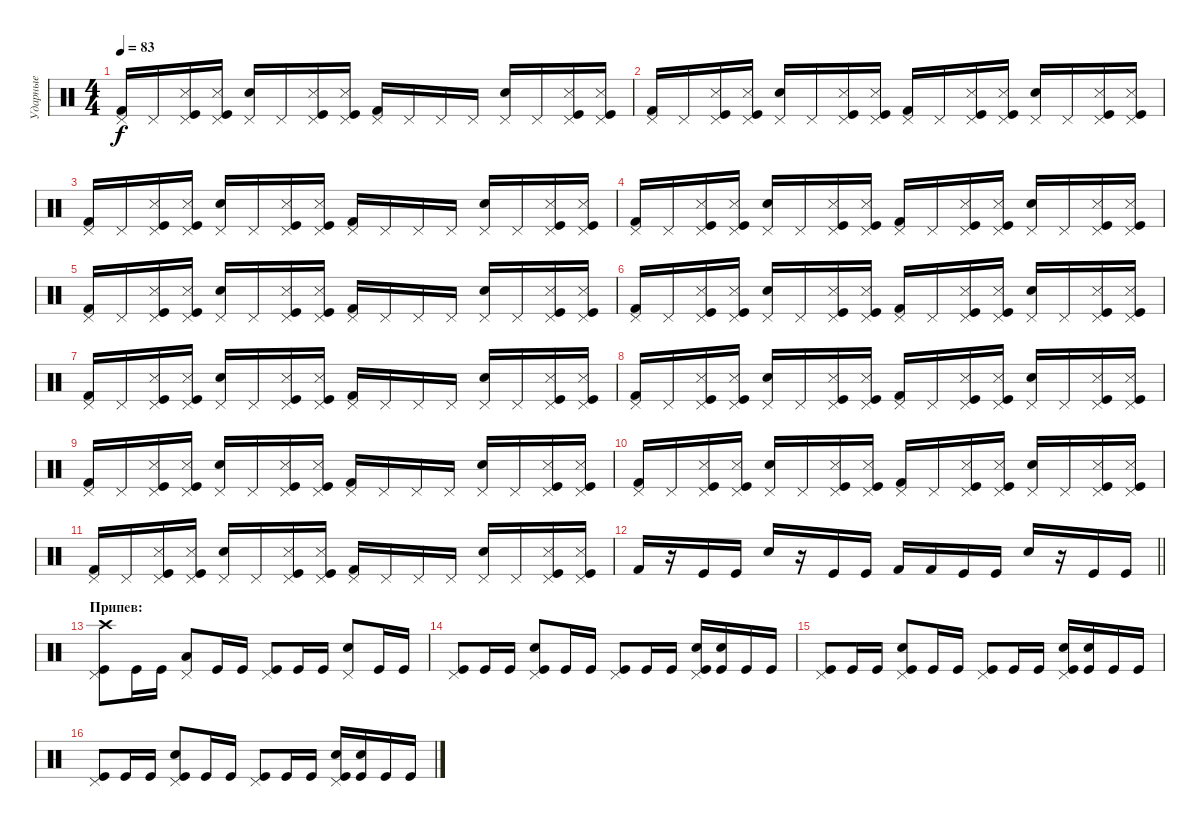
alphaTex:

\track ("Ударные" "Ударные") {instrument percussion}
\staff {score}
\articulation defaults
\ts (4 4)
\tempo 83
\clef neutral
\ks c
("Kick (hit) 2" "Pedal Hi-Hat (hit)").16{dy f} "Pedal Hi-Hat (hit)".16 ("Kick (hit)" "Snare (side stick) 3" "Pedal Hi-Hat (hit)").16 ("Kick (hit)" "Snare (side stick) 3" "Pedal Hi-Hat (hit)").16 ("Electric Snare (hit)" "Pedal Hi-Hat (hit)").16 "Pedal Hi-Hat (hit)".16 ("Kick (hit)" "Snare (side stick) 3" "Pedal Hi-Hat (hit)").16 ("Kick (hit)" "Snare (side stick) 3" "Pedal Hi-Hat (hit)").16 ("Kick (hit) 2" "Pedal Hi-Hat (hit)").16 "Pedal Hi-Hat (hit)".16 "Pedal Hi-Hat (hit)".16 "Pedal Hi-Hat (hit)".16 ("Electric Snare (hit)" "Pedal Hi-Hat (hit)").16 "Pedal Hi-Hat (hit)".16 ("Kick (hit)" "Snare (side stick) 3" "Pedal Hi-Hat (hit)").16 ("Kick (hit)" "Snare (side stick) 3" "Pedal Hi-Hat (hit)").16 |
("Kick (hit) 2" "Pedal Hi-Hat (hit)").16 "Pedal Hi-Hat (hit)".16 ("Kick (hit)" "Snare (side stick) 3" "Pedal Hi-Hat (hit)").16 ("Kick (hit)" "Snare (side stick) 3" "Pedal Hi-Hat (hit)").16 ("Electric Snare (hit)" "Pedal Hi-Hat (hit)").16 "Pedal Hi-Hat (hit)".16 ("Kick (hit)" "Snare (side stick) 3" "Pedal Hi-Hat (hit)").16 ("Kick (hit)" "Snare (side stick) 3" "Pedal Hi-Hat (hit)").16 ("Kick (hit) 2" "Pedal Hi-Hat (hit)").16 "Pedal Hi-Hat (hit)".16 ("Kick (hit)" "Snare (side stick) 3" "Pedal Hi-Hat (hit)").16 ("Kick (hit)" "Snare (side stick) 3" "Pedal Hi-Hat (hit)").16 ("Electric Snare (hit)" "Pedal Hi-Hat (hit)").16 "Pedal Hi-Hat (hit)".16 ("Kick (hit)" "Snare (side stick) 3" "Pedal Hi-Hat (hit)").16 ("Kick (hit)" "Snare (side stick) 3" "Pedal Hi-Hat (hit)").16 |
("Kick (hit) 2" "Pedal Hi-Hat (hit)").16 "Pedal Hi-Hat (hit)".16 ("Kick (hit)" "Snare (side stick) 3" "Pedal Hi-Hat (hit)").16 ("Kick (hit)" "Snare (side stick) 3" "Pedal Hi-Hat (hit)").16 ("Electric Snare (hit)" "Pedal Hi-Hat (hit)").16 "Pedal Hi-Hat (hit)".16 ("Kick (hit)" "Snare (side stick) 3" "Pedal Hi-Hat (hit)").16 ("Kick (hit)" "Snare (side stick) 3" "Pedal Hi-Hat (hit)").16 ("Kick (hit) 2" "Pedal Hi-Hat (hit)").16 "Pedal Hi-Hat (hit)".16 "Pedal Hi-Hat (hit)".16 "Pedal Hi-Hat (hit)".16 ("Electric Snare (hit)" "Pedal Hi-Hat (hit)").16 "Pedal Hi-Hat (hit)".16 ("Kick (hit)" "Snare (side stick) 3" "Pedal Hi-Hat (hit)").16 ("Kick (hit)" "Snare (side stick) 3" "Pedal Hi-Hat (hit)").16 |
("Kick (hit) 2" "Pedal Hi-Hat (hit)").16 "Pedal Hi-Hat (hit)".16 ("Kick (hit)" "Snare (side stick) 3" "Pedal Hi-Hat (hit)").16 ("Kick (hit)" "Snare (side stick) 3" "Pedal Hi-Hat (hit)").16 ("Electric Snare (hit)" "Pedal Hi-Hat (hit)").16 "Pedal Hi-Hat (hit)".16 ("Kick (hit)" "Snare (side stick) 3" "Pedal Hi-Hat (hit)").16 ("Kick (hit)" "Snare (side stick) 3" "Pedal Hi-Hat (hit)").16 ("Kick (hit) 2" "Pedal Hi-Hat (hit)").16 "Pedal Hi-Hat (hit)".16 ("Kick (hit)" "Snare (side stick) 3" "Pedal Hi-Hat (hit)").16 ("Kick (hit)" "Snare (side stick) 3" "Pedal Hi-Hat (hit)").16 ("Electric Snare (hit)" "Pedal Hi-Hat (hit)").16 "Pedal Hi-Hat (hit)".16 ("Kick (hit)" "Snare (side stick) 3" "Pedal Hi-Hat (hit)").16 ("Kick (hit)" "Snare (side stick) 3" "Pedal Hi-Hat (hit)").16 |
("Kick (hit) 2" "Pedal Hi-Hat (hit)").16 "Pedal Hi-Hat (hit)".16 ("Kick (hit)" "Snare (side stick) 3" "Pedal Hi-Hat (hit)").16 ("Kick (hit)" "Snare (side stick) 3" "Pedal Hi-Hat (hit)").16 ("Electric Snare (hit)" "Pedal Hi-Hat (hit)").16 "Pedal Hi-Hat (hit)".16 ("Kick (hit)" "Snare (side stick) 3" "Pedal Hi-Hat (hit)").16 ("Kick (hit)" "Snare (side stick) 3" "Pedal Hi-Hat (hit)").16 ("Kick (hit) 2" "Pedal Hi-Hat (hit)").16 "Pedal Hi-Hat (hit)".16 "Pedal Hi-Hat (hit)".16 "Pedal Hi-Hat (hit)".16 ("Electric Snare (hit)" "Pedal Hi-Hat (hit)").16 "Pedal Hi-Hat (hit)".16 ("Kick (hit)" "Snare (side stick) 3" "Pedal Hi-Hat (hit)").16 ("Kick (hit)" "Snare (side stick) 3" "Pedal Hi-Hat (hit)").16 |
("Kick (hit) 2" "Pedal Hi-Hat (hit)").16 "Pedal Hi-Hat (hit)".16 ("Kick (hit)" "Snare (side stick) 3" "Pedal Hi-Hat (hit)").16 ("Kick (hit)" "Snare (side stick) 3" "Pedal Hi-Hat (hit)").16 ("Electric Snare (hit)" "Pedal Hi-Hat (hit)").16 "Pedal Hi-Hat (hit)".16 ("Kick (hit)" "Snare (side stick) 3" "Pedal Hi-Hat (hit)").16 ("Kick (hit)" "Snare (side stick) 3" "Pedal Hi-Hat (hit)").16 ("Kick (hit) 2" "Pedal Hi-Hat (hit)").16 "Pedal Hi-Hat (hit)".16 ("Kick (hit)" "Snare (side stick) 3" "Pedal Hi-Hat (hit)").16 ("Kick (hit)" "Snare (side stick) 3" "Pedal Hi-Hat (hit)").16 ("Electric Snare (hit)" "Pedal Hi-Hat (hit)").16 "Pedal Hi-Hat (hit)".16 ("Kick (hit)" "Snare (side stick) 3" "Pedal Hi-Hat (hit)").16 ("Kick (hit)" "Snare (side stick) 3" "Pedal Hi-Hat (hit)").16 |
("Kick (hit) 2" "Pedal Hi-Hat (hit)").16 "Pedal Hi-Hat (hit)".16 ("Kick (hit)" "Snare (side stick) 3" "Pedal Hi-Hat (hit)").16 ("Kick (hit)" "Snare (side stick) 3" "Pedal Hi-Hat (hit)").16 ("Electric Snare (hit)" "Pedal Hi-Hat (hit)").16 "Pedal Hi-Hat (hit)".16 ("Kick (hit)" "Snare (side stick) 3" "Pedal Hi-Hat (hit)").16 ("Kick (hit)" "Snare (side stick) 3" "Pedal Hi-Hat (hit)").16 ("Kick (hit) 2" "Pedal Hi-Hat (hit)").16 "Pedal Hi-Hat (hit)".16 "Pedal Hi-Hat (hit)".16 "Pedal Hi-Hat (hit)".16 ("Electric Snare (hit)" "Pedal Hi-Hat (hit)").16 "Pedal Hi-Hat (hit)".16 ("Kick (hit)" "Snare (side stick) 3" "Pedal Hi-Hat (hit)").16 ("Kick (hit)" "Snare (side stick) 3" "Pedal Hi-Hat (hit)").16 |
("Kick (hit) 2" "Pedal Hi-Hat (hit)").16 "Pedal Hi-Hat (hit)".16 ("Kick (hit)" "Snare (side stick) 3" "Pedal Hi-Hat (hit)").16 ("Kick (hit)" "Snare (side stick) 3" "Pedal Hi-Hat (hit)").16 ("Electric Snare (hit)" "Pedal Hi-Hat (hit)").16 "Pedal Hi-Hat (hit)".16 ("Kick (hit)" "Snare (side stick) 3" "Pedal Hi-Hat (hit)").16 ("Kick (hit)" "Snare (side stick) 3" "Pedal Hi-Hat (hit)").16 ("Kick (hit) 2" "Pedal Hi-Hat (hit)").16 "Pedal Hi-Hat (hit)".16 ("Kick (hit)" "Snare (side stick) 3" "Pedal Hi-Hat (hit)").16 ("Kick (hit)" "Snare (side stick) 3" "Pedal Hi-Hat (hit)").16 ("Electric Snare (hit)" "Pedal Hi-Hat (hit)").16 "Pedal Hi-Hat (hit)".16 ("Kick (hit)" "Snare (side stick) 3" "Pedal Hi-Hat (hit)").16 ("Kick (hit)" "Snare (side stick) 3" "Pedal Hi-Hat (hit)").16 |
("Kick (hit) 2" "Pedal Hi-Hat (hit)").16 "Pedal Hi-Hat (hit)".16 ("Kick (hit)" "Snare (side stick) 3" "Pedal Hi-Hat (hit)").16 ("Kick (hit)" "Snare (side stick) 3" "Pedal Hi-Hat (hit)").16 ("Electric Snare (hit)" "Pedal Hi-Hat (hit)").16 "Pedal Hi-Hat (hit)".16 ("Kick (hit)" "Snare (side stick) 3" "Pedal Hi-Hat (hit)").16 ("Kick (hit)" "Snare (side stick) 3" "Pedal Hi-Hat (hit)").16 ("Kick (hit) 2" "Pedal Hi-Hat (hit)").16 "Pedal Hi-Hat (hit)".16 "Pedal Hi-Hat (hit)".16 "Pedal Hi-Hat (hit)".16 ("Electric Snare (hit)" "Pedal Hi-Hat (hit)").16 "Pedal Hi-Hat (hit)".16 ("Kick (hit)" "Snare (side stick) 3" "Pedal Hi-Hat (hit)").16 ("Kick (hit)" "Snare (side stick) 3" "Pedal Hi-Hat (hit)").16 |
("Kick (hit) 2" "Pedal Hi-Hat (hit)").16 "Pedal Hi-Hat (hit)".16 ("Kick (hit)" "Snare (side stick) 3" "Pedal Hi-Hat (hit)").16 ("Kick (hit)" "Snare (side stick) 3" "Pedal Hi-Hat (hit)").16 ("Electric Snare (hit)" "Pedal Hi-Hat (hit)").16 "Pedal Hi-Hat (hit)".16 ("Kick (hit)" "Snare (side stick) 3" "Pedal Hi-Hat (hit)").16 ("Kick (hit)" "Snare (side stick) 3" "Pedal Hi-Hat (hit)").16 ("Kick (hit) 2" "Pedal Hi-Hat (hit)").16 "Pedal Hi-Hat (hit)".16 ("Kick (hit)" "Snare (side stick) 3" "Pedal Hi-Hat (hit)").16 ("Kick (hit)" "Snare (side stick) 3" "Pedal Hi-Hat (hit)").16 ("Electric Snare (hit)" "Pedal Hi-Hat (hit)").16 "Pedal Hi-Hat (hit)".16 ("Kick (hit)" "Snare (side stick) 3" "Pedal Hi-Hat (hit)").16 ("Kick (hit)" "Snare (side stick) 3" "Pedal Hi-Hat (hit)").16 |
("Kick (hit) 2" "Pedal Hi-Hat (hit)").16 "Pedal Hi-Hat (hit)".16 ("Kick (hit)" "Snare (side stick) 3" "Pedal Hi-Hat (hit)").16 ("Kick (hit)" "Snare (side stick) 3" "Pedal Hi-Hat (hit)").16 ("Electric Snare (hit)" "Pedal Hi-Hat (hit)").16 "Pedal Hi-Hat (hit)".16 ("Kick (hit)" "Snare (side stick) 3" "Pedal Hi-Hat (hit)").16 ("Kick (hit)" "Snare (side stick) 3" "Pedal Hi-Hat (hit)").16 ("Kick (hit) 2" "Pedal Hi-Hat (hit)").16 "Pedal Hi-Hat (hit)".16 "Pedal Hi-Hat (hit)".16 "Pedal Hi-Hat (hit)".16 ("Electric Snare (hit)" "Pedal Hi-Hat (hit)").16 "Pedal Hi-Hat (hit)".16 ("Kick (hit)" "Snare (side stick) 3" "Pedal Hi-Hat (hit)").16 ("Kick (hit)" "Snare (side stick) 3" "Pedal Hi-Hat (hit)").16 |
\barLineRight lightlight "Kick (hit) 2".16
r.16 "Kick (hit)".16 "Kick (hit)".16 "Electric Snare (hit)".16 r.16 "Kick (hit)".16 "Kick (hit)".16 "Kick (hit) 2".16 "Kick (hit) 2".16 "Kick (hit)".16 "Kick (hit)".16 "Electric Snare (hit)".16 r.16 "Kick (hit)".16 "Kick (hit)".16 |
\section ("" "Припев:")
("Kick (hit)" "Crash high (hit)" "Pedal Hi-Hat (hit)").8 "Kick (hit)".16 "Kick (hit)".16 ("Low Tom (hit)" "Pedal Hi-Hat (hit)").8 "Kick (hit)".16 "Kick (hit)".16 ("Kick (hit)" "Pedal Hi-Hat (hit)").8 "Kick (hit)".16 "Kick (hit)".16 ("Electric Snare (hit)" "Pedal Hi-Hat (hit)").8 "Kick (hit)".16 "Kick (hit)".16 |
("Pedal Hi-Hat (hit)" "Kick (hit)").8 "Kick (hit)".16 "Kick (hit)".16 ("Pedal Hi-Hat (hit)" "Kick (hit)" "Electric Snare (hit)").8 "Kick (hit)".16 "Kick (hit)".16 ("Pedal Hi-Hat (hit)" "Kick (hit)").8 "Kick (hit)".16 "Kick (hit)".16 ("Pedal Hi-Hat (hit)" "Kick (hit)" "Electric Snare (hit)").16 ("Kick (hit)" "Electric Snare (hit)").16 "Kick (hit)".16 "Kick (hit)".16 |
("Pedal Hi-Hat (hit)" "Kick (hit)").8 "Kick (hit)".16 "Kick (hit)".16 ("Pedal Hi-Hat (hit)" "Kick (hit)" "Electric Snare (hit)").8 "Kick (hit)".16 "Kick (hit)".16 ("Pedal Hi-Hat (hit)" "Kick (hit)").8 "Kick (hit)".16 "Kick (hit)".16 ("Pedal Hi-Hat (hit)" "Kick (hit)" "Electric Snare (hit)").16 ("Kick (hit)" "Electric Snare (hit)").16 "Kick (hit)".16 "Kick (hit)".16 |
("Pedal Hi-Hat (hit)" "Kick (hit)").8 "Kick (hit)".16 "Kick (hit)".16 ("Pedal Hi-Hat (hit)" "Kick (hit)" "Electric Snare (hit)").8 "Kick (hit)".16 "Kick (hit)".16 ("Pedal Hi-Hat (hit)" "Kick (hit)").8 "Kick (hit)".16 "Kick (hit)".16 ("Pedal Hi-Hat (hit)" "Kick (hit)" "Electric Snare (hit)").16 ("Kick (hit)" "Electric Snare (hit)").16 "Kick (hit)".16 "Kick (hit)".16
